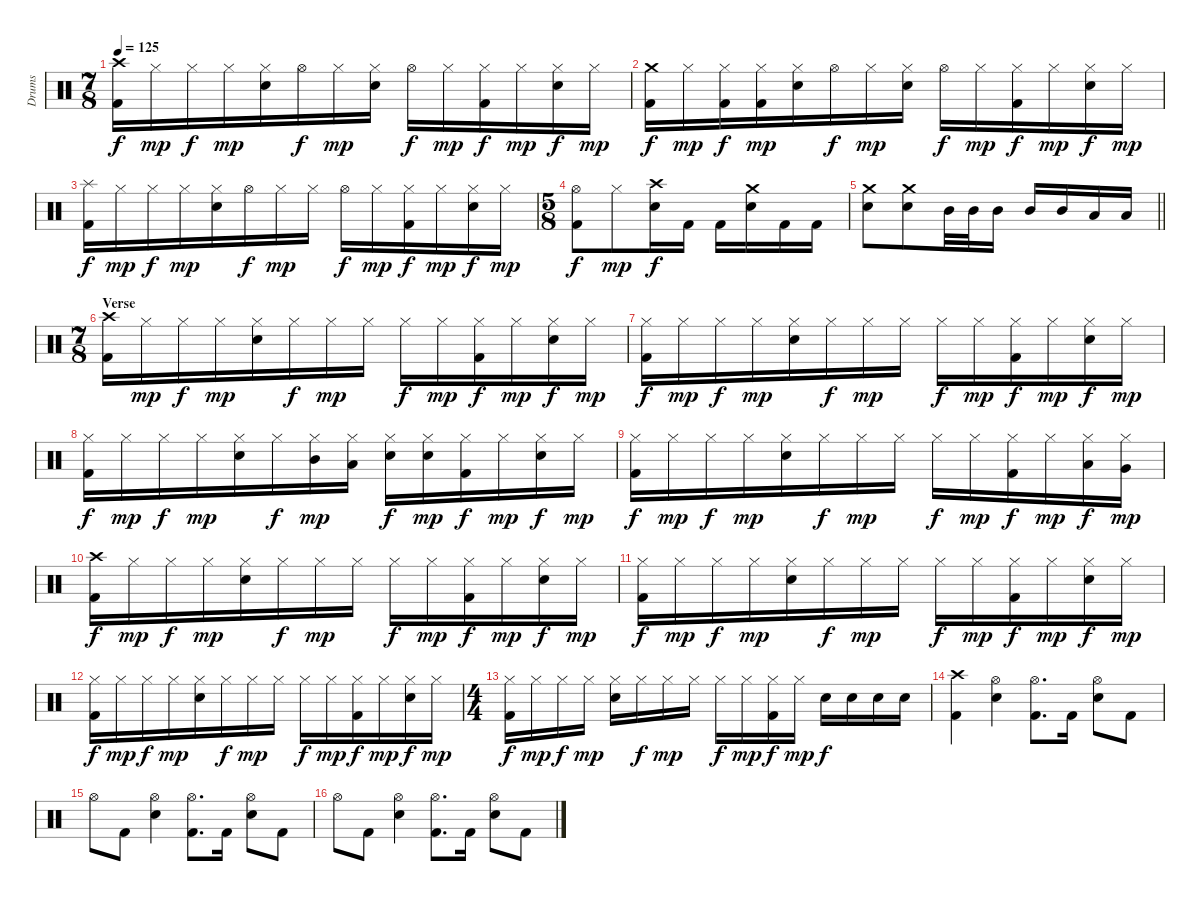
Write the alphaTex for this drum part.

\track ("Drums" "Drums") {instrument percussion}
\staff {score}
\articulation defaults
\ts (7 8)
\tempo 125
\clef neutral
\ks c
("Kick (hit) 2" "Crash high (hit)").16{dy f} "Hi-Hat (closed)".16{dy mp} "Hi-Hat (closed)".16{dy f} "Hi-Hat (closed)".16{dy mp} ("Hi-Hat (closed)" "Electric Snare (hit)").16 "Hi-Hat (open)".16{dy f} "Hi-Hat (closed)".16{dy mp} ("Hi-Hat (closed)" "Electric Snare (hit)").16 "Hi-Hat (open)".16{dy f} "Hi-Hat (closed)".16{dy mp} ("Kick (hit) 2" "Hi-Hat (closed)").16{dy f} "Hi-Hat (closed)".16{dy mp} ("Hi-Hat (closed)" "Electric Snare (hit)").16{dy f} "Hi-Hat (closed)".16{dy mp} |
("Kick (hit) 2" "Crash medium (hit)").16{dy f} "Hi-Hat (closed)".16{dy mp} ("Kick (hit) 2" "Hi-Hat (closed)").16{dy f} ("Kick (hit) 2" "Hi-Hat (closed)").16{dy mp} ("Hi-Hat (closed)" "Electric Snare (hit)").16 "Hi-Hat (open)".16{dy f} "Hi-Hat (closed)".16{dy mp} ("Hi-Hat (closed)" "Electric Snare (hit)").16 "Hi-Hat (open)".16{dy f} "Hi-Hat (closed)".16{dy mp} ("Kick (hit) 2" "Hi-Hat (closed)").16{dy f} "Hi-Hat (closed)".16{dy mp} ("Hi-Hat (closed)" "Electric Snare (hit)").16{dy f} "Hi-Hat (closed)".16{dy mp} |
("Kick (hit) 2" "Splash (hit)").16{dy f} "Hi-Hat (closed)".16{dy mp} "Hi-Hat (closed)".16{dy f} "Hi-Hat (closed)".16{dy mp} ("Hi-Hat (closed)" "Electric Snare (hit)").16 "Hi-Hat (open)".16{dy f} "Hi-Hat (closed)".16{dy mp} "Hi-Hat (closed)".16 "Hi-Hat (open)".16{dy f} "Hi-Hat (closed)".16{dy mp} ("Kick (hit) 2" "Hi-Hat (closed)").16{dy f} "Hi-Hat (closed)".16{dy mp} ("Hi-Hat (closed)" "Electric Snare (hit)").16{dy f} "Hi-Hat (closed)".16{dy mp} |
\ts (5 8)
("Kick (hit) 2" "Hi-Hat (open)").8{dy f} "Hi-Hat (closed)".8{dy mp} ("Crash high (hit)" "Electric Snare (hit)").16{dy f} "Kick (hit) 2".16 "Kick (hit) 2".16 ("Crash medium (hit)" "Electric Snare (hit)").16 "Kick (hit) 2".16 "Kick (hit) 2".16 |
\barLineRight lightlight
("Crash medium (hit)" "Electric Snare (hit)").8 ("Crash medium (hit)" "Electric Snare (hit)").8 "Mid Tom (hit)".32 "Mid Tom (hit)".32 "Mid Tom (hit)".16 "Mid Tom (hit)".16 "Mid Tom (hit)".16 "Low Tom (hit)".16 "Low Tom (hit)".16 |
\ts (7 8)
\section ("" "Verse")
("Kick (hit) 2" "Crash high (hit)").16 "Hi-Hat (closed)".16{dy mp} "Hi-Hat (closed)".16{dy f} "Hi-Hat (closed)".16{dy mp} ("Hi-Hat (closed)" "Electric Snare (hit)").16 "Hi-Hat (closed)".16{dy f} "Hi-Hat (closed)".16{dy mp} "Hi-Hat (closed)".16 "Hi-Hat (closed)".16{dy f} "Hi-Hat (closed)".16{dy mp} ("Kick (hit) 2" "Hi-Hat (closed)").16{dy f} "Hi-Hat (closed)".16{dy mp} ("Hi-Hat (closed)" "Electric Snare (hit)").16{dy f} "Hi-Hat (closed)".16{dy mp} |
("Kick (hit) 2" "Hi-Hat (closed)").16{dy f} "Hi-Hat (closed)".16{dy mp} "Hi-Hat (closed)".16{dy f} "Hi-Hat (closed)".16{dy mp} ("Hi-Hat (closed)" "Electric Snare (hit)").16 "Hi-Hat (closed)".16{dy f} "Hi-Hat (closed)".16{dy mp} "Hi-Hat (closed)".16 "Hi-Hat (closed)".16{dy f} "Hi-Hat (closed)".16{dy mp} ("Kick (hit) 2" "Hi-Hat (closed)").16{dy f} "Hi-Hat (closed)".16{dy mp} ("Hi-Hat (closed)" "Electric Snare (hit)").16{dy f} "Hi-Hat (closed)".16{dy mp} |
("Kick (hit) 2" "Hi-Hat (closed)").16{dy f} "Hi-Hat (closed)".16{dy mp} "Hi-Hat (closed)".16{dy f} "Hi-Hat (closed)".16{dy mp} ("Hi-Hat (closed)" "Electric Snare (hit)").16 "Hi-Hat (closed)".16{dy f} ("Hi-Hat (closed)" "Mid Tom (hit)").16{dy mp} ("Hi-Hat (closed)" "Low Tom (hit)").16 ("Hi-Hat (closed)" "Electric Snare (hit)").16{dy f} ("Hi-Hat (closed)" "Electric Snare (hit)").16{dy mp} ("Kick (hit) 2" "Hi-Hat (closed)").16{dy f} "Hi-Hat (closed)".16{dy mp} ("Hi-Hat (closed)" "Electric Snare (hit)").16{dy f} "Hi-Hat (closed)".16{dy mp} |
("Kick (hit) 2" "Hi-Hat (closed)").16{dy f} "Hi-Hat (closed)".16{dy mp} "Hi-Hat (closed)".16{dy f} "Hi-Hat (closed)".16{dy mp} ("Hi-Hat (closed)" "Electric Snare (hit)").16 "Hi-Hat (closed)".16{dy f} "Hi-Hat (closed)".16{dy mp} "Hi-Hat (closed)".16 "Hi-Hat (closed)".16{dy f} "Hi-Hat (closed)".16{dy mp} ("Kick (hit) 2" "Hi-Hat (closed)").16{dy f} "Hi-Hat (closed)".16{dy mp} ("Hi-Hat (closed)" "Low Tom (hit)").16{dy f} ("Hi-Hat (closed)" "Very Low Tom (hit)").16{dy mp} |
("Kick (hit) 2" "Crash high (hit)").16{dy f} "Hi-Hat (closed)".16{dy mp} "Hi-Hat (closed)".16{dy f} "Hi-Hat (closed)".16{dy mp} ("Hi-Hat (closed)" "Electric Snare (hit)").16 "Hi-Hat (closed)".16{dy f} "Hi-Hat (closed)".16{dy mp} "Hi-Hat (closed)".16 "Hi-Hat (closed)".16{dy f} "Hi-Hat (closed)".16{dy mp} ("Kick (hit) 2" "Hi-Hat (closed)").16{dy f} "Hi-Hat (closed)".16{dy mp} ("Hi-Hat (closed)" "Electric Snare (hit)").16{dy f} "Hi-Hat (closed)".16{dy mp} |
("Kick (hit) 2" "Hi-Hat (closed)").16{dy f} "Hi-Hat (closed)".16{dy mp} "Hi-Hat (closed)".16{dy f} "Hi-Hat (closed)".16{dy mp} ("Hi-Hat (closed)" "Electric Snare (hit)").16 "Hi-Hat (closed)".16{dy f} "Hi-Hat (closed)".16{dy mp} "Hi-Hat (closed)".16 "Hi-Hat (closed)".16{dy f} "Hi-Hat (closed)".16{dy mp} ("Kick (hit) 2" "Hi-Hat (closed)").16{dy f} "Hi-Hat (closed)".16{dy mp} ("Hi-Hat (closed)" "Electric Snare (hit)").16{dy f} "Hi-Hat (closed)".16{dy mp} |
("Kick (hit) 2" "Hi-Hat (closed)").16{dy f} "Hi-Hat (closed)".16{dy mp} "Hi-Hat (closed)".16{dy f} "Hi-Hat (closed)".16{dy mp} ("Hi-Hat (closed)" "Electric Snare (hit)").16 "Hi-Hat (closed)".16{dy f} "Hi-Hat (closed)".16{dy mp} "Hi-Hat (closed)".16 "Hi-Hat (closed)".16{dy f} "Hi-Hat (closed)".16{dy mp} ("Kick (hit) 2" "Hi-Hat (closed)").16{dy f} "Hi-Hat (closed)".16{dy mp} ("Hi-Hat (closed)" "Electric Snare (hit)").16{dy f} "Hi-Hat (closed)".16{dy mp} |
\ts (4 4)
("Kick (hit) 2" "Hi-Hat (closed)").16{dy f} "Hi-Hat (closed)".16{dy mp} "Hi-Hat (closed)".16{dy f} "Hi-Hat (closed)".16{dy mp} ("Hi-Hat (closed)" "Electric Snare (hit)").16 "Hi-Hat (closed)".16{dy f} "Hi-Hat (closed)".16{dy mp} "Hi-Hat (closed)".16 "Hi-Hat (closed)".16{dy f} "Hi-Hat (closed)".16{dy mp} ("Kick (hit) 2" "Hi-Hat (closed)").16{dy f} "Hi-Hat (closed)".16{dy mp} "Electric Snare (hit)".16{dy f} "Electric Snare (hit)".16 "Electric Snare (hit)".16 "Electric Snare (hit)".16 |
("Kick (hit) 2" "Crash high (hit)").4 ("Hi-Hat (open)" "Electric Snare (hit)").4 ("Kick (hit) 2" "Hi-Hat (open)").8{d} "Kick (hit) 2".16 ("Hi-Hat (open)" "Electric Snare (hit)").8 "Kick (hit) 2".8 |
"Hi-Hat (open)".8 "Kick (hit) 2".8 ("Hi-Hat (open)" "Electric Snare (hit)").4 ("Kick (hit) 2" "Hi-Hat (open)").8{d} "Kick (hit) 2".16 ("Hi-Hat (open)" "Electric Snare (hit)").8 "Kick (hit) 2".8 |
"Hi-Hat (open)".8 "Kick (hit) 2".8 ("Hi-Hat (open)" "Electric Snare (hit)").4 ("Kick (hit) 2" "Hi-Hat (open)").8{d} "Kick (hit) 2".16 ("Hi-Hat (open)" "Electric Snare (hit)").8 "Kick (hit) 2".8
